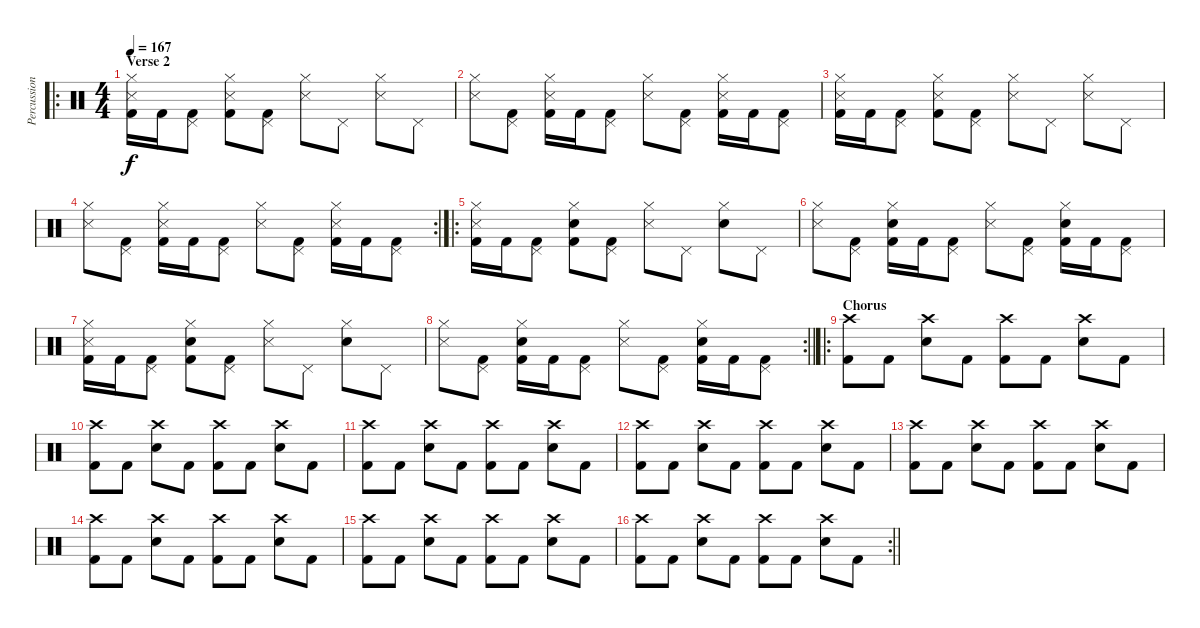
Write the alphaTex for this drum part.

\track ("Percussion" "Percussion") {instrument percussion}
\staff {score}
\articulation defaults
\ro
\ts (4 4)
\section ("" "Verse 2")
\tempo 167
\clef neutral
\ks c
("Hi-Hat (closed)" "Snare (side stick) 3" "Kick (hit) 2").16{dy f} "Kick (hit) 2".16 ("Pedal Hi-Hat (hit)" "Kick (hit) 2").8 ("Hi-Hat (closed)" "Snare (side stick) 3" "Kick (hit) 2").8 ("Pedal Hi-Hat (hit)" "Kick (hit) 2").8 ("Hi-Hat (closed)" "Snare (side stick) 3").8 "Pedal Hi-Hat (hit)".8 ("Hi-Hat (closed)" "Snare (side stick) 3").8 "Pedal Hi-Hat (hit)".8 |
("Hi-Hat (closed)" "Snare (side stick) 3").8 ("Pedal Hi-Hat (hit)" "Kick (hit) 2").8 ("Hi-Hat (closed)" "Snare (side stick) 3" "Kick (hit) 2").16 "Kick (hit) 2".16 ("Pedal Hi-Hat (hit)" "Kick (hit) 2").8 ("Hi-Hat (closed)" "Snare (side stick) 3").8 ("Pedal Hi-Hat (hit)" "Kick (hit) 2").8 ("Hi-Hat (closed)" "Snare (side stick) 3" "Kick (hit) 2").16 "Kick (hit) 2".16 ("Pedal Hi-Hat (hit)" "Kick (hit) 2").8 |
("Hi-Hat (closed)" "Snare (side stick) 3" "Kick (hit) 2").16 "Kick (hit) 2".16 ("Pedal Hi-Hat (hit)" "Kick (hit) 2").8 ("Hi-Hat (closed)" "Snare (side stick) 3" "Kick (hit) 2").8 ("Pedal Hi-Hat (hit)" "Kick (hit) 2").8 ("Hi-Hat (closed)" "Snare (side stick) 3").8 "Pedal Hi-Hat (hit)".8 ("Hi-Hat (closed)" "Snare (side stick) 3").8 "Pedal Hi-Hat (hit)".8 |
\rc 2
("Hi-Hat (closed)" "Snare (side stick) 3").8 ("Pedal Hi-Hat (hit)" "Kick (hit) 2").8 ("Hi-Hat (closed)" "Snare (side stick) 3" "Kick (hit) 2").16 "Kick (hit) 2".16 ("Pedal Hi-Hat (hit)" "Kick (hit) 2").8 ("Hi-Hat (closed)" "Snare (side stick) 3").8 ("Pedal Hi-Hat (hit)" "Kick (hit) 2").8 ("Hi-Hat (closed)" "Snare (side stick) 3" "Kick (hit) 2").16 "Kick (hit) 2".16 ("Pedal Hi-Hat (hit)" "Kick (hit) 2").8 |
\ro
("Hi-Hat (closed)" "Snare (side stick) 3" "Kick (hit) 2").16 "Kick (hit) 2".16 ("Pedal Hi-Hat (hit)" "Kick (hit) 2").8 ("Hi-Hat (closed)" "Electric Snare (hit)" "Kick (hit) 2").8 ("Pedal Hi-Hat (hit)" "Kick (hit) 2").8 ("Hi-Hat (closed)" "Snare (side stick) 3").8 "Pedal Hi-Hat (hit)".8 ("Hi-Hat (closed)" "Electric Snare (hit)").8 "Pedal Hi-Hat (hit)".8 |
("Hi-Hat (closed)" "Snare (side stick) 3").8 ("Pedal Hi-Hat (hit)" "Kick (hit) 2").8 ("Hi-Hat (closed)" "Electric Snare (hit)" "Kick (hit) 2").16 "Kick (hit) 2".16 ("Pedal Hi-Hat (hit)" "Kick (hit) 2").8 ("Hi-Hat (closed)" "Snare (side stick) 3").8 ("Pedal Hi-Hat (hit)" "Kick (hit) 2").8 ("Hi-Hat (closed)" "Electric Snare (hit)" "Kick (hit) 2").16 "Kick (hit) 2".16 ("Pedal Hi-Hat (hit)" "Kick (hit) 2").8 |
("Hi-Hat (closed)" "Snare (side stick) 3" "Kick (hit) 2").16 "Kick (hit) 2".16 ("Pedal Hi-Hat (hit)" "Kick (hit) 2").8 ("Hi-Hat (closed)" "Electric Snare (hit)" "Kick (hit) 2").8 ("Pedal Hi-Hat (hit)" "Kick (hit) 2").8 ("Hi-Hat (closed)" "Snare (side stick) 3").8 "Pedal Hi-Hat (hit)".8 ("Hi-Hat (closed)" "Electric Snare (hit)").8 "Pedal Hi-Hat (hit)".8 |
\rc 2
\barLineRight lightlight
("Hi-Hat (closed)" "Snare (side stick) 3").8 ("Pedal Hi-Hat (hit)" "Kick (hit) 2").8 ("Hi-Hat (closed)" "Electric Snare (hit)" "Kick (hit) 2").16 "Kick (hit) 2".16 ("Pedal Hi-Hat (hit)" "Kick (hit) 2").8 ("Hi-Hat (closed)" "Snare (side stick) 3").8 ("Pedal Hi-Hat (hit)" "Kick (hit) 2").8 ("Hi-Hat (closed)" "Electric Snare (hit)" "Kick (hit) 2").16 "Kick (hit) 2".16 ("Pedal Hi-Hat (hit)" "Kick (hit) 2").8 |
\ro
\section ("" "Chorus")
("Crash high (hit)" "Kick (hit) 2").8 "Kick (hit) 2".8 ("Crash high (hit)" "Electric Snare (hit)").8 "Kick (hit) 2".8 ("Crash high (hit)" "Kick (hit) 2").8 "Kick (hit) 2".8 ("Crash high (hit)" "Electric Snare (hit)").8 "Kick (hit) 2".8 |
("Crash high (hit)" "Kick (hit) 2").8 "Kick (hit) 2".8 ("Crash high (hit)" "Electric Snare (hit)").8 "Kick (hit) 2".8 ("Crash high (hit)" "Kick (hit) 2").8 "Kick (hit) 2".8 ("Crash high (hit)" "Electric Snare (hit)").8 "Kick (hit) 2".8 |
("Crash high (hit)" "Kick (hit) 2").8 "Kick (hit) 2".8 ("Crash high (hit)" "Electric Snare (hit)").8 "Kick (hit) 2".8 ("Crash high (hit)" "Kick (hit) 2").8 "Kick (hit) 2".8 ("Crash high (hit)" "Electric Snare (hit)").8 "Kick (hit) 2".8 |
("Crash high (hit)" "Kick (hit) 2").8 "Kick (hit) 2".8 ("Crash high (hit)" "Electric Snare (hit)").8 "Kick (hit) 2".8 ("Crash high (hit)" "Kick (hit) 2").8 "Kick (hit) 2".8 ("Crash high (hit)" "Electric Snare (hit)").8 "Kick (hit) 2".8 |
("Crash high (hit)" "Kick (hit) 2").8 "Kick (hit) 2".8 ("Crash high (hit)" "Electric Snare (hit)").8 "Kick (hit) 2".8 ("Crash high (hit)" "Kick (hit) 2").8 "Kick (hit) 2".8 ("Crash high (hit)" "Electric Snare (hit)").8 "Kick (hit) 2".8 |
("Crash high (hit)" "Kick (hit) 2").8 "Kick (hit) 2".8 ("Crash high (hit)" "Electric Snare (hit)").8 "Kick (hit) 2".8 ("Crash high (hit)" "Kick (hit) 2").8 "Kick (hit) 2".8 ("Crash high (hit)" "Electric Snare (hit)").8 "Kick (hit) 2".8 |
("Crash high (hit)" "Kick (hit) 2").8 "Kick (hit) 2".8 ("Crash high (hit)" "Electric Snare (hit)").8 "Kick (hit) 2".8 ("Crash high (hit)" "Kick (hit) 2").8 "Kick (hit) 2".8 ("Crash high (hit)" "Electric Snare (hit)").8 "Kick (hit) 2".8 |
\rc 2
\barLineRight lightlight
("Crash high (hit)" "Kick (hit) 2").8 "Kick (hit) 2".8 ("Crash high (hit)" "Electric Snare (hit)").8 "Kick (hit) 2".8 ("Crash high (hit)" "Kick (hit) 2").8 "Kick (hit) 2".8 ("Crash high (hit)" "Electric Snare (hit)").8 "Kick (hit) 2".8
